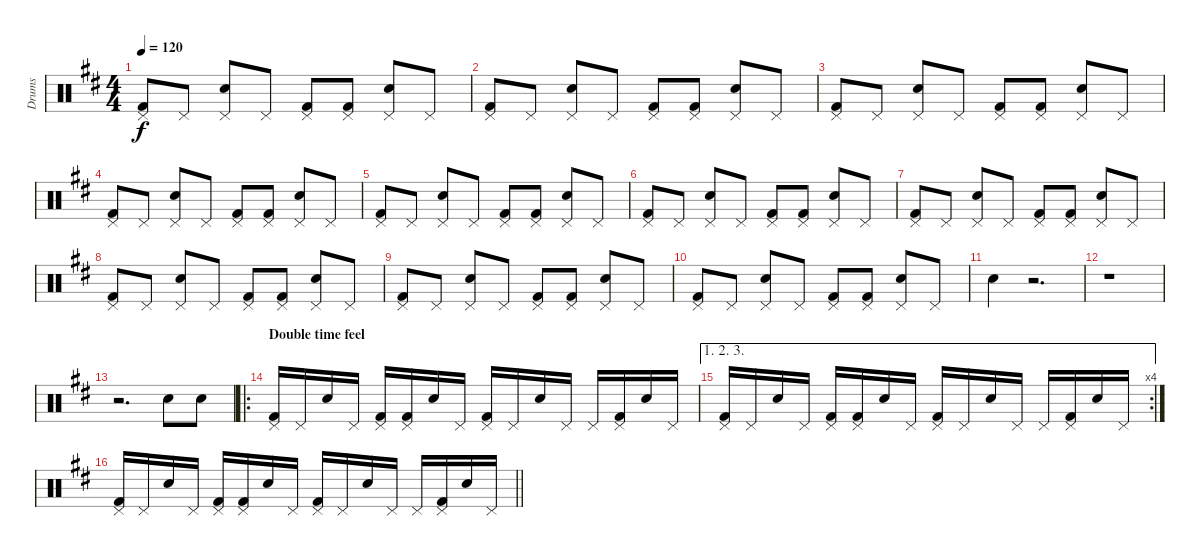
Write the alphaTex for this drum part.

\track ("Drums" "Drums") {instrument percussion}
\staff {score}
\articulation defaults
\ts (4 4)
\tempo 120
\clef neutral
\ks d
("Pedal Hi-Hat (hit)" "Kick (hit) 2").8{dy f} "Pedal Hi-Hat (hit)".8 ("Pedal Hi-Hat (hit)" "Electric Snare (hit)").8 "Pedal Hi-Hat (hit)".8 ("Pedal Hi-Hat (hit)" "Kick (hit) 2").8 ("Pedal Hi-Hat (hit)" "Kick (hit) 2").8 ("Pedal Hi-Hat (hit)" "Electric Snare (hit)").8 "Pedal Hi-Hat (hit)".8 |
("Pedal Hi-Hat (hit)" "Kick (hit) 2").8 "Pedal Hi-Hat (hit)".8 ("Pedal Hi-Hat (hit)" "Electric Snare (hit)").8 "Pedal Hi-Hat (hit)".8 ("Pedal Hi-Hat (hit)" "Kick (hit) 2").8 ("Pedal Hi-Hat (hit)" "Kick (hit) 2").8 ("Pedal Hi-Hat (hit)" "Electric Snare (hit)").8 "Pedal Hi-Hat (hit)".8 |
("Pedal Hi-Hat (hit)" "Kick (hit) 2").8 "Pedal Hi-Hat (hit)".8 ("Pedal Hi-Hat (hit)" "Electric Snare (hit)").8 "Pedal Hi-Hat (hit)".8 ("Pedal Hi-Hat (hit)" "Kick (hit) 2").8 ("Pedal Hi-Hat (hit)" "Kick (hit) 2").8 ("Pedal Hi-Hat (hit)" "Electric Snare (hit)").8 "Pedal Hi-Hat (hit)".8 |
("Pedal Hi-Hat (hit)" "Kick (hit) 2").8 "Pedal Hi-Hat (hit)".8 ("Pedal Hi-Hat (hit)" "Electric Snare (hit)").8 "Pedal Hi-Hat (hit)".8 ("Pedal Hi-Hat (hit)" "Kick (hit) 2").8 ("Pedal Hi-Hat (hit)" "Kick (hit) 2").8 ("Pedal Hi-Hat (hit)" "Electric Snare (hit)").8 "Pedal Hi-Hat (hit)".8 |
("Pedal Hi-Hat (hit)" "Kick (hit) 2").8 "Pedal Hi-Hat (hit)".8 ("Pedal Hi-Hat (hit)" "Electric Snare (hit)").8 "Pedal Hi-Hat (hit)".8 ("Pedal Hi-Hat (hit)" "Kick (hit) 2").8 ("Pedal Hi-Hat (hit)" "Kick (hit) 2").8 ("Pedal Hi-Hat (hit)" "Electric Snare (hit)").8 "Pedal Hi-Hat (hit)".8 |
("Pedal Hi-Hat (hit)" "Kick (hit) 2").8 "Pedal Hi-Hat (hit)".8 ("Pedal Hi-Hat (hit)" "Electric Snare (hit)").8 "Pedal Hi-Hat (hit)".8 ("Pedal Hi-Hat (hit)" "Kick (hit) 2").8 ("Pedal Hi-Hat (hit)" "Kick (hit) 2").8 ("Pedal Hi-Hat (hit)" "Electric Snare (hit)").8 "Pedal Hi-Hat (hit)".8 |
("Pedal Hi-Hat (hit)" "Kick (hit) 2").8 "Pedal Hi-Hat (hit)".8 ("Pedal Hi-Hat (hit)" "Electric Snare (hit)").8 "Pedal Hi-Hat (hit)".8 ("Pedal Hi-Hat (hit)" "Kick (hit) 2").8 ("Pedal Hi-Hat (hit)" "Kick (hit) 2").8 ("Pedal Hi-Hat (hit)" "Electric Snare (hit)").8 "Pedal Hi-Hat (hit)".8 |
("Pedal Hi-Hat (hit)" "Kick (hit) 2").8 "Pedal Hi-Hat (hit)".8 ("Pedal Hi-Hat (hit)" "Electric Snare (hit)").8 "Pedal Hi-Hat (hit)".8 ("Pedal Hi-Hat (hit)" "Kick (hit) 2").8 ("Pedal Hi-Hat (hit)" "Kick (hit) 2").8 ("Pedal Hi-Hat (hit)" "Electric Snare (hit)").8 "Pedal Hi-Hat (hit)".8 |
("Pedal Hi-Hat (hit)" "Kick (hit) 2").8 "Pedal Hi-Hat (hit)".8 ("Pedal Hi-Hat (hit)" "Electric Snare (hit)").8 "Pedal Hi-Hat (hit)".8 ("Pedal Hi-Hat (hit)" "Kick (hit) 2").8 ("Pedal Hi-Hat (hit)" "Kick (hit) 2").8 ("Pedal Hi-Hat (hit)" "Electric Snare (hit)").8 "Pedal Hi-Hat (hit)".8 |
("Pedal Hi-Hat (hit)" "Kick (hit) 2").8 "Pedal Hi-Hat (hit)".8 ("Pedal Hi-Hat (hit)" "Electric Snare (hit)").8 "Pedal Hi-Hat (hit)".8 ("Pedal Hi-Hat (hit)" "Kick (hit) 2").8 ("Pedal Hi-Hat (hit)" "Kick (hit) 2").8 ("Pedal Hi-Hat (hit)" "Electric Snare (hit)").8 "Pedal Hi-Hat (hit)".8 |
"Electric Snare (hit)".4 r.2{d} |
r.1 |
r.2{d} "Electric Snare (hit)".8 "Electric Snare (hit)".8 |
\ro
\section ("" "Double time feel")
("Pedal Hi-Hat (hit)" "Kick (hit) 2").16 "Pedal Hi-Hat (hit)".16 "Electric Snare (hit)".16 "Pedal Hi-Hat (hit)".16 ("Pedal Hi-Hat (hit)" "Kick (hit) 2").16 ("Pedal Hi-Hat (hit)" "Kick (hit) 2").16 "Electric Snare (hit)".16 "Pedal Hi-Hat (hit)".16 ("Pedal Hi-Hat (hit)" "Kick (hit) 2").16 "Pedal Hi-Hat (hit)".16 "Electric Snare (hit)".16 "Pedal Hi-Hat (hit)".16 "Pedal Hi-Hat (hit)".16 ("Pedal Hi-Hat (hit)" "Kick (hit) 2").16 "Electric Snare (hit)".16 "Pedal Hi-Hat (hit)".16 |
\ae (1 2 3)
\rc 4
("Pedal Hi-Hat (hit)" "Kick (hit) 2").16 "Pedal Hi-Hat (hit)".16 "Electric Snare (hit)".16 "Pedal Hi-Hat (hit)".16 ("Pedal Hi-Hat (hit)" "Kick (hit) 2").16 ("Pedal Hi-Hat (hit)" "Kick (hit) 2").16 "Electric Snare (hit)".16 "Pedal Hi-Hat (hit)".16 ("Pedal Hi-Hat (hit)" "Kick (hit) 2").16 "Pedal Hi-Hat (hit)".16 "Electric Snare (hit)".16 "Pedal Hi-Hat (hit)".16 "Pedal Hi-Hat (hit)".16 ("Pedal Hi-Hat (hit)" "Kick (hit) 2").16 "Electric Snare (hit)".16 "Pedal Hi-Hat (hit)".16 |
\barLineRight lightlight
("Pedal Hi-Hat (hit)" "Kick (hit) 2").16 "Pedal Hi-Hat (hit)".16 "Electric Snare (hit)".16 "Pedal Hi-Hat (hit)".16 ("Pedal Hi-Hat (hit)" "Kick (hit) 2").16 ("Pedal Hi-Hat (hit)" "Kick (hit) 2").16 "Electric Snare (hit)".16 "Pedal Hi-Hat (hit)".16 ("Pedal Hi-Hat (hit)" "Kick (hit) 2").16 "Pedal Hi-Hat (hit)".16 "Electric Snare (hit)".16 "Pedal Hi-Hat (hit)".16 "Pedal Hi-Hat (hit)".16 ("Pedal Hi-Hat (hit)" "Kick (hit) 2").16 "Electric Snare (hit)".16 "Pedal Hi-Hat (hit)".16
